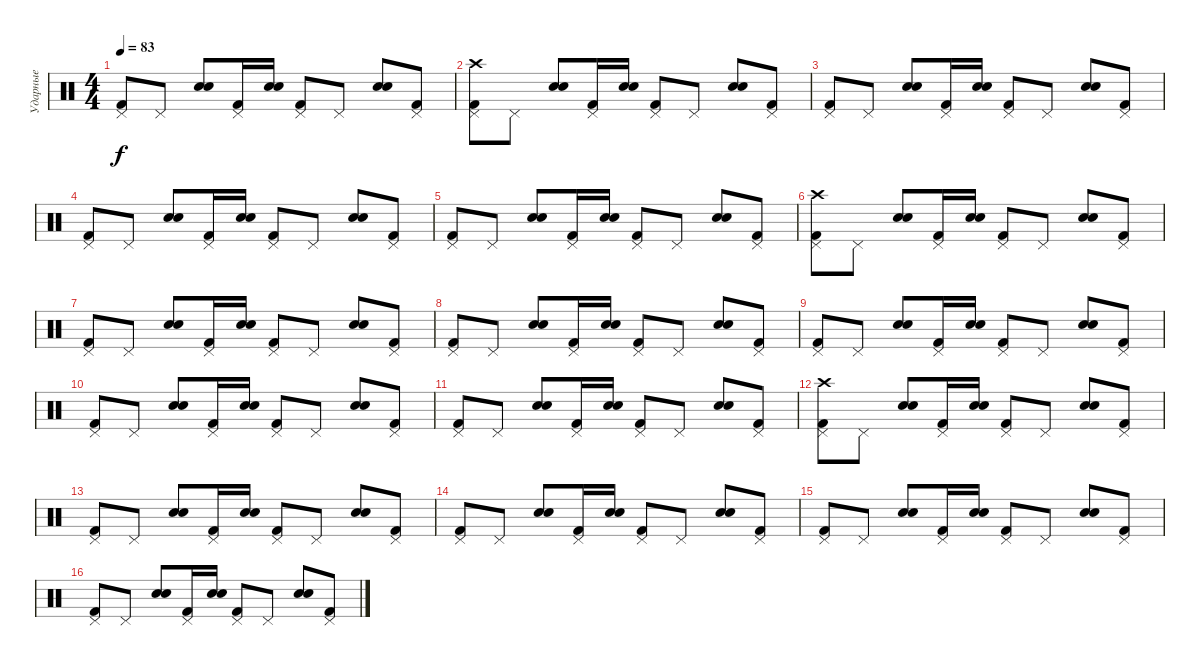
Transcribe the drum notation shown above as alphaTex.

\track ("Ударные" "Ударные") {instrument percussion}
\staff {score}
\articulation defaults
\ts (4 4)
\tempo 83
\clef neutral
\ks c
("Kick (hit) 2" "Pedal Hi-Hat (hit)").8{dy f} "Pedal Hi-Hat (hit)".8 ("Hand Clap (hit)" "Electric Snare (hit)").8 ("Kick (hit) 2" "Pedal Hi-Hat (hit)").16 ("Hand Clap (hit)" "Electric Snare (hit)").16 ("Kick (hit) 2" "Pedal Hi-Hat (hit)").8 "Pedal Hi-Hat (hit)".8 ("Hand Clap (hit)" "Electric Snare (hit)").8 ("Kick (hit) 2" "Pedal Hi-Hat (hit)").8 |
("Kick (hit) 2" "Pedal Hi-Hat (hit)" "Crash high (hit)").8 "Pedal Hi-Hat (hit)".8 ("Hand Clap (hit)" "Electric Snare (hit)").8 ("Kick (hit) 2" "Pedal Hi-Hat (hit)").16 ("Hand Clap (hit)" "Electric Snare (hit)").16 ("Kick (hit) 2" "Pedal Hi-Hat (hit)").8 "Pedal Hi-Hat (hit)".8 ("Hand Clap (hit)" "Electric Snare (hit)").8 ("Kick (hit) 2" "Pedal Hi-Hat (hit)").8 |
("Kick (hit) 2" "Pedal Hi-Hat (hit)").8 "Pedal Hi-Hat (hit)".8 ("Hand Clap (hit)" "Electric Snare (hit)").8 ("Kick (hit) 2" "Pedal Hi-Hat (hit)").16 ("Hand Clap (hit)" "Electric Snare (hit)").16 ("Kick (hit) 2" "Pedal Hi-Hat (hit)").8 "Pedal Hi-Hat (hit)".8 ("Hand Clap (hit)" "Electric Snare (hit)").8 ("Kick (hit) 2" "Pedal Hi-Hat (hit)").8 |
("Kick (hit) 2" "Pedal Hi-Hat (hit)").8 "Pedal Hi-Hat (hit)".8 ("Hand Clap (hit)" "Electric Snare (hit)").8 ("Kick (hit) 2" "Pedal Hi-Hat (hit)").16 ("Hand Clap (hit)" "Electric Snare (hit)").16 ("Kick (hit) 2" "Pedal Hi-Hat (hit)").8 "Pedal Hi-Hat (hit)".8 ("Hand Clap (hit)" "Electric Snare (hit)").8 ("Kick (hit) 2" "Pedal Hi-Hat (hit)").8 |
("Kick (hit) 2" "Pedal Hi-Hat (hit)").8 "Pedal Hi-Hat (hit)".8 ("Hand Clap (hit)" "Electric Snare (hit)").8 ("Kick (hit) 2" "Pedal Hi-Hat (hit)").16 ("Hand Clap (hit)" "Electric Snare (hit)").16 ("Kick (hit) 2" "Pedal Hi-Hat (hit)").8 "Pedal Hi-Hat (hit)".8 ("Hand Clap (hit)" "Electric Snare (hit)").8 ("Kick (hit) 2" "Pedal Hi-Hat (hit)").8 |
("Kick (hit) 2" "Pedal Hi-Hat (hit)" "Crash high (hit)").8 "Pedal Hi-Hat (hit)".8 ("Hand Clap (hit)" "Electric Snare (hit)").8 ("Kick (hit) 2" "Pedal Hi-Hat (hit)").16 ("Hand Clap (hit)" "Electric Snare (hit)").16 ("Kick (hit) 2" "Pedal Hi-Hat (hit)").8 "Pedal Hi-Hat (hit)".8 ("Hand Clap (hit)" "Electric Snare (hit)").8 ("Kick (hit) 2" "Pedal Hi-Hat (hit)").8 |
("Kick (hit) 2" "Pedal Hi-Hat (hit)").8 "Pedal Hi-Hat (hit)".8 ("Hand Clap (hit)" "Electric Snare (hit)").8 ("Kick (hit) 2" "Pedal Hi-Hat (hit)").16 ("Hand Clap (hit)" "Electric Snare (hit)").16 ("Kick (hit) 2" "Pedal Hi-Hat (hit)").8 "Pedal Hi-Hat (hit)".8 ("Hand Clap (hit)" "Electric Snare (hit)").8 ("Kick (hit) 2" "Pedal Hi-Hat (hit)").8 |
("Kick (hit) 2" "Pedal Hi-Hat (hit)").8 "Pedal Hi-Hat (hit)".8 ("Hand Clap (hit)" "Electric Snare (hit)").8 ("Kick (hit) 2" "Pedal Hi-Hat (hit)").16 ("Hand Clap (hit)" "Electric Snare (hit)").16 ("Kick (hit) 2" "Pedal Hi-Hat (hit)").8 "Pedal Hi-Hat (hit)".8 ("Hand Clap (hit)" "Electric Snare (hit)").8 ("Kick (hit) 2" "Pedal Hi-Hat (hit)").8 |
("Kick (hit) 2" "Pedal Hi-Hat (hit)").8 "Pedal Hi-Hat (hit)".8 ("Hand Clap (hit)" "Electric Snare (hit)").8 ("Kick (hit) 2" "Pedal Hi-Hat (hit)").16 ("Hand Clap (hit)" "Electric Snare (hit)").16 ("Kick (hit) 2" "Pedal Hi-Hat (hit)").8 "Pedal Hi-Hat (hit)".8 ("Hand Clap (hit)" "Electric Snare (hit)").8 ("Kick (hit) 2" "Pedal Hi-Hat (hit)").8 |
("Kick (hit) 2" "Pedal Hi-Hat (hit)").8 "Pedal Hi-Hat (hit)".8 ("Hand Clap (hit)" "Electric Snare (hit)").8 ("Kick (hit) 2" "Pedal Hi-Hat (hit)").16 ("Hand Clap (hit)" "Electric Snare (hit)").16 ("Kick (hit) 2" "Pedal Hi-Hat (hit)").8 "Pedal Hi-Hat (hit)".8 ("Hand Clap (hit)" "Electric Snare (hit)").8 ("Kick (hit) 2" "Pedal Hi-Hat (hit)").8 |
("Kick (hit) 2" "Pedal Hi-Hat (hit)").8 "Pedal Hi-Hat (hit)".8 ("Hand Clap (hit)" "Electric Snare (hit)").8 ("Kick (hit) 2" "Pedal Hi-Hat (hit)").16 ("Hand Clap (hit)" "Electric Snare (hit)").16 ("Kick (hit) 2" "Pedal Hi-Hat (hit)").8 "Pedal Hi-Hat (hit)".8 ("Hand Clap (hit)" "Electric Snare (hit)").8 ("Kick (hit) 2" "Pedal Hi-Hat (hit)").8 |
("Kick (hit) 2" "Pedal Hi-Hat (hit)" "Crash high (hit)").8 "Pedal Hi-Hat (hit)".8 ("Hand Clap (hit)" "Electric Snare (hit)").8 ("Kick (hit) 2" "Pedal Hi-Hat (hit)").16 ("Hand Clap (hit)" "Electric Snare (hit)").16 ("Kick (hit) 2" "Pedal Hi-Hat (hit)").8 "Pedal Hi-Hat (hit)".8 ("Hand Clap (hit)" "Electric Snare (hit)").8 ("Kick (hit) 2" "Pedal Hi-Hat (hit)").8 |
("Kick (hit) 2" "Pedal Hi-Hat (hit)").8 "Pedal Hi-Hat (hit)".8 ("Hand Clap (hit)" "Electric Snare (hit)").8 ("Kick (hit) 2" "Pedal Hi-Hat (hit)").16 ("Hand Clap (hit)" "Electric Snare (hit)").16 ("Kick (hit) 2" "Pedal Hi-Hat (hit)").8 "Pedal Hi-Hat (hit)".8 ("Hand Clap (hit)" "Electric Snare (hit)").8 ("Kick (hit) 2" "Pedal Hi-Hat (hit)").8 |
("Kick (hit) 2" "Pedal Hi-Hat (hit)").8 "Pedal Hi-Hat (hit)".8 ("Hand Clap (hit)" "Electric Snare (hit)").8 ("Kick (hit) 2" "Pedal Hi-Hat (hit)").16 ("Hand Clap (hit)" "Electric Snare (hit)").16 ("Kick (hit) 2" "Pedal Hi-Hat (hit)").8 "Pedal Hi-Hat (hit)".8 ("Hand Clap (hit)" "Electric Snare (hit)").8 ("Kick (hit) 2" "Pedal Hi-Hat (hit)").8 |
("Kick (hit) 2" "Pedal Hi-Hat (hit)").8 "Pedal Hi-Hat (hit)".8 ("Hand Clap (hit)" "Electric Snare (hit)").8 ("Kick (hit) 2" "Pedal Hi-Hat (hit)").16 ("Hand Clap (hit)" "Electric Snare (hit)").16 ("Kick (hit) 2" "Pedal Hi-Hat (hit)").8 "Pedal Hi-Hat (hit)".8 ("Hand Clap (hit)" "Electric Snare (hit)").8 ("Kick (hit) 2" "Pedal Hi-Hat (hit)").8 |
("Kick (hit) 2" "Pedal Hi-Hat (hit)").8 "Pedal Hi-Hat (hit)".8 ("Hand Clap (hit)" "Electric Snare (hit)").8 ("Kick (hit) 2" "Pedal Hi-Hat (hit)").16 ("Hand Clap (hit)" "Electric Snare (hit)").16 ("Kick (hit) 2" "Pedal Hi-Hat (hit)").8 "Pedal Hi-Hat (hit)".8 ("Hand Clap (hit)" "Electric Snare (hit)").8 ("Kick (hit) 2" "Pedal Hi-Hat (hit)").8
